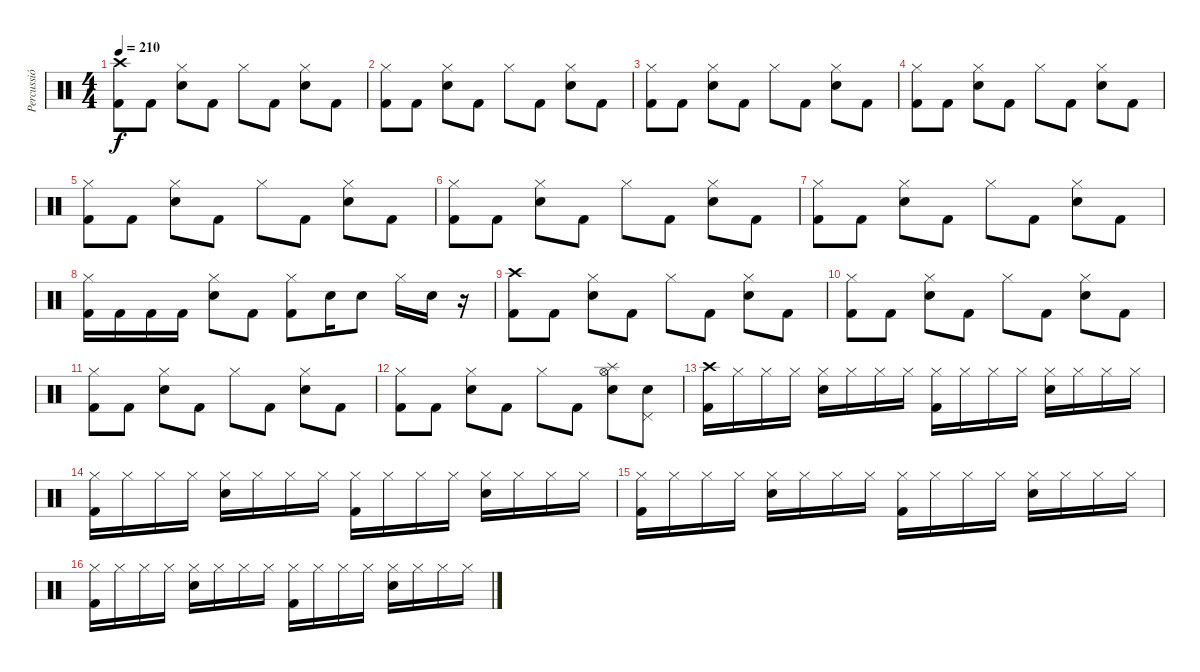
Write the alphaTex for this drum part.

\track ("Percussió" "Percussió") {instrument percussion}
\staff {score}
\articulation defaults
\ts (4 4)
\tempo 210
\clef neutral
\ks c
("Crash high (hit)" "Kick (hit) 2").8{dy f} "Kick (hit) 2".8 ("Hi-Hat (closed)" "Snare (hit) 2").8 "Kick (hit) 2".8 "Hi-Hat (closed)".8 "Kick (hit) 2".8 ("Hi-Hat (closed)" "Snare (hit) 2").8 "Kick (hit) 2".8 |
("Hi-Hat (closed)" "Kick (hit) 2").8 "Kick (hit) 2".8 ("Hi-Hat (closed)" "Snare (hit) 2").8 "Kick (hit) 2".8 "Hi-Hat (closed)".8 "Kick (hit) 2".8 ("Hi-Hat (closed)" "Snare (hit) 2").8 "Kick (hit) 2".8 |
("Hi-Hat (closed)" "Kick (hit) 2").8 "Kick (hit) 2".8 ("Hi-Hat (closed)" "Snare (hit) 2").8 "Kick (hit) 2".8 "Hi-Hat (closed)".8 "Kick (hit) 2".8 ("Hi-Hat (closed)" "Snare (hit) 2").8 "Kick (hit) 2".8 |
("Hi-Hat (closed)" "Kick (hit) 2").8 "Kick (hit) 2".8 ("Hi-Hat (closed)" "Snare (hit) 2").8 "Kick (hit) 2".8 "Hi-Hat (closed)".8 "Kick (hit) 2".8 ("Hi-Hat (closed)" "Snare (hit) 2").8 "Kick (hit) 2".8 |
("Hi-Hat (closed)" "Kick (hit) 2").8 "Kick (hit) 2".8 ("Hi-Hat (closed)" "Snare (hit) 2").8 "Kick (hit) 2".8 "Hi-Hat (closed)".8 "Kick (hit) 2".8 ("Hi-Hat (closed)" "Snare (hit) 2").8 "Kick (hit) 2".8 |
("Hi-Hat (closed)" "Kick (hit) 2").8 "Kick (hit) 2".8 ("Hi-Hat (closed)" "Snare (hit) 2").8 "Kick (hit) 2".8 "Hi-Hat (closed)".8 "Kick (hit) 2".8 ("Hi-Hat (closed)" "Snare (hit) 2").8 "Kick (hit) 2".8 |
("Hi-Hat (closed)" "Kick (hit) 2").8 "Kick (hit) 2".8 ("Hi-Hat (closed)" "Snare (hit) 2").8 "Kick (hit) 2".8 "Hi-Hat (closed)".8 "Kick (hit) 2".8 ("Hi-Hat (closed)" "Snare (hit) 2").8 "Kick (hit) 2".8 |
("Hi-Hat (closed)" "Kick (hit) 2").16 "Kick (hit) 2".16 "Kick (hit) 2".16 "Kick (hit) 2".16 ("Hi-Hat (closed)" "Snare (hit) 2").8 "Kick (hit) 2".8 ("Hi-Hat (closed)" "Kick (hit) 2").8 "Snare (hit) 2".16 "Snare (hit) 2".8 "Hi-Hat (closed)".16 "Snare (hit) 2".16 r.16 |
("Crash high (hit)" "Kick (hit) 2").8 "Kick (hit) 2".8 ("Hi-Hat (closed)" "Snare (hit) 2").8 "Kick (hit) 2".8 "Hi-Hat (closed)".8 "Kick (hit) 2".8 ("Hi-Hat (closed)" "Snare (hit) 2").8 "Kick (hit) 2".8 |
("Hi-Hat (closed)" "Kick (hit) 2").8 "Kick (hit) 2".8 ("Hi-Hat (closed)" "Snare (hit) 2").8 "Kick (hit) 2".8 "Hi-Hat (closed)".8 "Kick (hit) 2".8 ("Hi-Hat (closed)" "Snare (hit) 2").8 "Kick (hit) 2".8 |
("Hi-Hat (closed)" "Kick (hit) 2").8 "Kick (hit) 2".8 ("Hi-Hat (closed)" "Snare (hit) 2").8 "Kick (hit) 2".8 "Hi-Hat (closed)".8 "Kick (hit) 2".8 ("Hi-Hat (closed)" "Snare (hit) 2").8 "Kick (hit) 2".8 |
("Hi-Hat (closed)" "Kick (hit) 2").8 "Kick (hit) 2".8 ("Hi-Hat (closed)" "Snare (hit) 2").8 "Kick (hit) 2".8 "Hi-Hat (closed)".8 "Kick (hit) 2".8 ("Splash (hit)" "Hi-Hat (open)" "Snare (hit) 2").8 ("Pedal Hi-Hat (hit)" "Snare (hit) 2").8 |
("Crash high (hit)" "Kick (hit) 2").16 "Hi-Hat (closed)".16 "Hi-Hat (closed)".16 "Hi-Hat (closed)".16 ("Hi-Hat (closed)" "Snare (hit) 2").16 "Hi-Hat (closed)".16 "Hi-Hat (closed)".16 "Hi-Hat (closed)".16 ("Hi-Hat (closed)" "Kick (hit) 2").16 "Hi-Hat (closed)".16 "Hi-Hat (closed)".16 "Hi-Hat (closed)".16 ("Hi-Hat (closed)" "Snare (hit) 2").16 "Hi-Hat (closed)".16 "Hi-Hat (closed)".16 "Hi-Hat (closed)".16 |
("Hi-Hat (closed)" "Kick (hit) 2").16 "Hi-Hat (closed)".16 "Hi-Hat (closed)".16 "Hi-Hat (closed)".16 ("Hi-Hat (closed)" "Snare (hit) 2").16 "Hi-Hat (closed)".16 "Hi-Hat (closed)".16 "Hi-Hat (closed)".16 ("Hi-Hat (closed)" "Kick (hit) 2").16 "Hi-Hat (closed)".16 "Hi-Hat (closed)".16 "Hi-Hat (closed)".16 ("Hi-Hat (closed)" "Snare (hit) 2").16 "Hi-Hat (closed)".16 "Hi-Hat (closed)".16 "Hi-Hat (closed)".16 |
("Hi-Hat (closed)" "Kick (hit) 2").16 "Hi-Hat (closed)".16 "Hi-Hat (closed)".16 "Hi-Hat (closed)".16 ("Hi-Hat (closed)" "Snare (hit) 2").16 "Hi-Hat (closed)".16 "Hi-Hat (closed)".16 "Hi-Hat (closed)".16 ("Hi-Hat (closed)" "Kick (hit) 2").16 "Hi-Hat (closed)".16 "Hi-Hat (closed)".16 "Hi-Hat (closed)".16 ("Hi-Hat (closed)" "Snare (hit) 2").16 "Hi-Hat (closed)".16 "Hi-Hat (closed)".16 "Hi-Hat (closed)".16 |
("Hi-Hat (closed)" "Kick (hit) 2").16 "Hi-Hat (closed)".16 "Hi-Hat (closed)".16 "Hi-Hat (closed)".16 ("Hi-Hat (closed)" "Snare (hit) 2").16 "Hi-Hat (closed)".16 "Hi-Hat (closed)".16 "Hi-Hat (closed)".16 ("Hi-Hat (closed)" "Kick (hit) 2").16 "Hi-Hat (closed)".16 "Hi-Hat (closed)".16 "Hi-Hat (closed)".16 ("Hi-Hat (closed)" "Snare (hit) 2").16 "Hi-Hat (closed)".16 "Hi-Hat (closed)".16 "Hi-Hat (closed)".16
